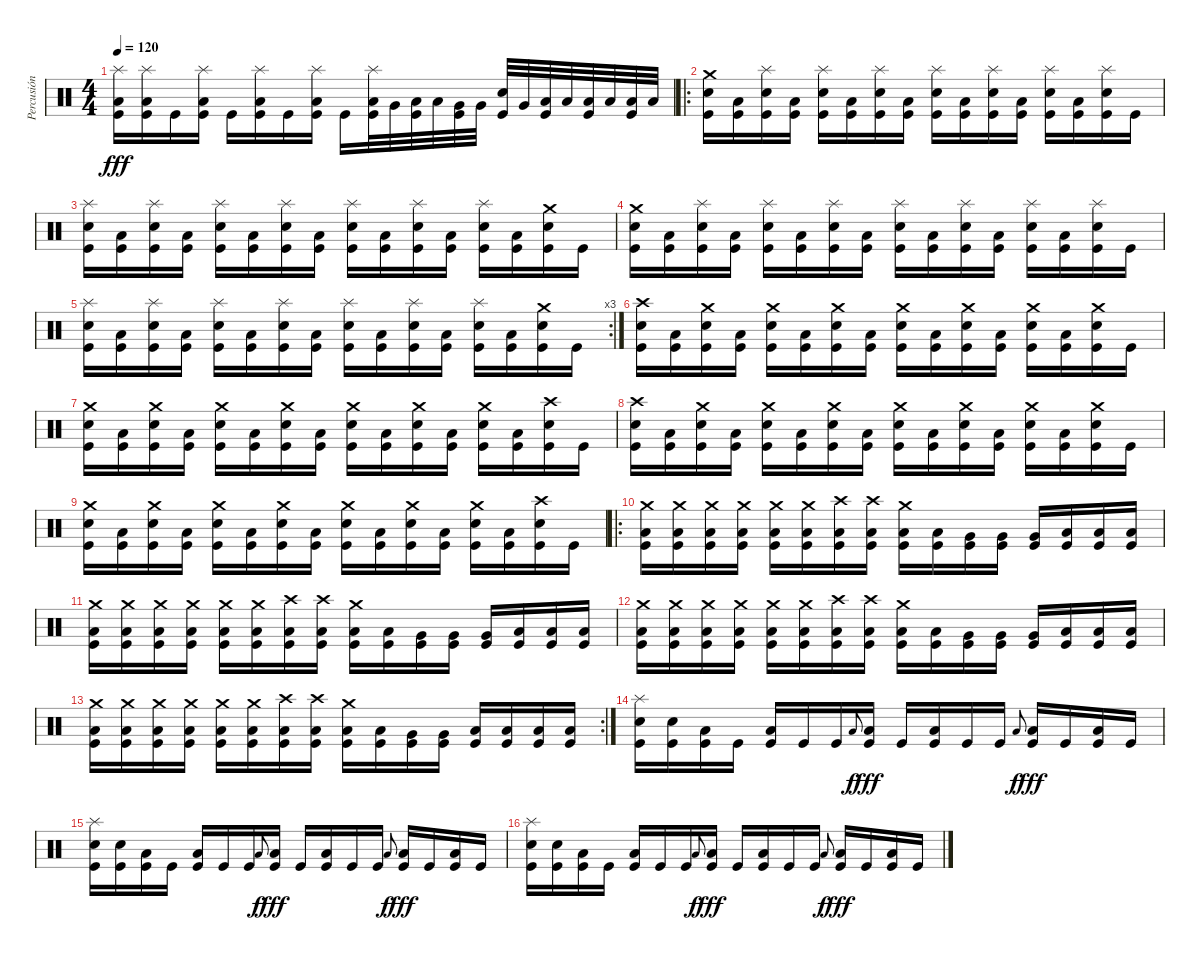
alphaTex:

\track ("Percusión" "Percusión") {instrument percussion}
\staff {score}
\articulation defaults
\ts (4 4)
\tempo 120
\clef neutral
\ks c
("Splash (hit)" "Low Floor Tom (hit)" "Kick (hit)").16{dy fff} ("Splash (hit)" "Low Floor Tom (hit)" "Kick (hit)").16 "Kick (hit)".16 ("Splash (hit)" "Low Floor Tom (hit)" "Kick (hit)").16 "Kick (hit)".16 ("Splash (hit)" "Low Floor Tom (hit)" "Kick (hit)").16 "Kick (hit)".16 ("Splash (hit)" "Low Floor Tom (hit)" "Kick (hit)").16 "Kick (hit)".16 ("Splash (hit)" "Low Floor Tom (hit)" "Kick (hit)").32 "Very Low Tom (hit)".32 ("Low Floor Tom (hit)" "Kick (hit)").32 "Low Floor Tom (hit)".32 ("Very Low Tom (hit)" "Kick (hit)").32 "Very Low Tom (hit)".32 ("Snare (hit) 2" "Kick (hit)").32 "Very Low Tom (hit)".32 ("Low Floor Tom (hit)" "Kick (hit)").32 "Low Floor Tom (hit)".32 ("Low Floor Tom (hit)" "Kick (hit)").32 "Low Floor Tom (hit)".32 ("Low Floor Tom (hit)" "Kick (hit)").32 "Low Floor Tom (hit)".32 |
\ro
("Crash medium (hit)" "Snare (hit) 2" "Kick (hit)").16 ("Low Floor Tom (hit)" "Kick (hit)").16 ("Splash (hit)" "Snare (hit) 2" "Kick (hit)").16 ("Low Floor Tom (hit)" "Kick (hit)").16 ("Splash (hit)" "Snare (hit) 2" "Kick (hit)").16 ("Low Floor Tom (hit)" "Kick (hit)").16 ("Splash (hit)" "Snare (hit) 2" "Kick (hit)").16 ("Low Floor Tom (hit)" "Kick (hit)").16 ("Splash (hit)" "Snare (hit) 2" "Kick (hit)").16 ("Low Floor Tom (hit)" "Kick (hit)").16 ("Splash (hit)" "Snare (hit) 2" "Kick (hit)").16 ("Low Floor Tom (hit)" "Kick (hit)").16 ("Splash (hit)" "Snare (hit) 2" "Kick (hit)").16 ("Low Floor Tom (hit)" "Kick (hit)").16 ("Splash (hit)" "Snare (hit) 2" "Kick (hit)").16 "Kick (hit)".16 |
("Splash (hit)" "Snare (hit) 2" "Kick (hit)").16 ("Low Floor Tom (hit)" "Kick (hit)").16 ("Splash (hit)" "Snare (hit) 2" "Kick (hit)").16 ("Low Floor Tom (hit)" "Kick (hit)").16 ("Splash (hit)" "Snare (hit) 2" "Kick (hit)").16 ("Low Floor Tom (hit)" "Kick (hit)").16 ("Splash (hit)" "Snare (hit) 2" "Kick (hit)").16 ("Low Floor Tom (hit)" "Kick (hit)").16 ("Splash (hit)" "Snare (hit) 2" "Kick (hit)").16 ("Low Floor Tom (hit)" "Kick (hit)").16 ("Splash (hit)" "Snare (hit) 2" "Kick (hit)").16 ("Low Floor Tom (hit)" "Kick (hit)").16 ("Splash (hit)" "Snare (hit) 2" "Kick (hit)").16 ("Low Floor Tom (hit)" "Kick (hit)").16 ("Crash medium (hit)" "Snare (hit) 2" "Kick (hit)").16 "Kick (hit)".16 |
("Crash medium (hit)" "Snare (hit) 2" "Kick (hit)").16 ("Low Floor Tom (hit)" "Kick (hit)").16 ("Splash (hit)" "Snare (hit) 2" "Kick (hit)").16 ("Low Floor Tom (hit)" "Kick (hit)").16 ("Splash (hit)" "Snare (hit) 2" "Kick (hit)").16 ("Low Floor Tom (hit)" "Kick (hit)").16 ("Splash (hit)" "Snare (hit) 2" "Kick (hit)").16 ("Low Floor Tom (hit)" "Kick (hit)").16 ("Splash (hit)" "Snare (hit) 2" "Kick (hit)").16 ("Low Floor Tom (hit)" "Kick (hit)").16 ("Splash (hit)" "Snare (hit) 2" "Kick (hit)").16 ("Low Floor Tom (hit)" "Kick (hit)").16 ("Splash (hit)" "Snare (hit) 2" "Kick (hit)").16 ("Low Floor Tom (hit)" "Kick (hit)").16 ("Splash (hit)" "Snare (hit) 2" "Kick (hit)").16 "Kick (hit)".16 |
\rc 3
("Splash (hit)" "Snare (hit) 2" "Kick (hit)").16 ("Low Floor Tom (hit)" "Kick (hit)").16 ("Splash (hit)" "Snare (hit) 2" "Kick (hit)").16 ("Low Floor Tom (hit)" "Kick (hit)").16 ("Splash (hit)" "Snare (hit) 2" "Kick (hit)").16 ("Low Floor Tom (hit)" "Kick (hit)").16 ("Splash (hit)" "Snare (hit) 2" "Kick (hit)").16 ("Low Floor Tom (hit)" "Kick (hit)").16 ("Splash (hit)" "Snare (hit) 2" "Kick (hit)").16 ("Low Floor Tom (hit)" "Kick (hit)").16 ("Splash (hit)" "Snare (hit) 2" "Kick (hit)").16 ("Low Floor Tom (hit)" "Kick (hit)").16 ("Splash (hit)" "Snare (hit) 2" "Kick (hit)").16 ("Low Floor Tom (hit)" "Kick (hit)").16 ("Crash medium (hit)" "Snare (hit) 2" "Kick (hit)").16 "Kick (hit)".16 |
("Crash high (hit)" "Snare (hit) 2" "Kick (hit)").16 ("Low Floor Tom (hit)" "Kick (hit)").16 ("Crash medium (hit)" "Snare (hit) 2" "Kick (hit)").16 ("Low Floor Tom (hit)" "Kick (hit)").16 ("Crash medium (hit)" "Snare (hit) 2" "Kick (hit)").16 ("Low Floor Tom (hit)" "Kick (hit)").16 ("Crash medium (hit)" "Snare (hit) 2" "Kick (hit)").16 ("Low Floor Tom (hit)" "Kick (hit)").16 ("Crash medium (hit)" "Snare (hit) 2" "Kick (hit)").16 ("Low Floor Tom (hit)" "Kick (hit)").16 ("Crash medium (hit)" "Snare (hit) 2" "Kick (hit)").16 ("Low Floor Tom (hit)" "Kick (hit)").16 ("Crash medium (hit)" "Snare (hit) 2" "Kick (hit)").16 ("Low Floor Tom (hit)" "Kick (hit)").16 ("Crash medium (hit)" "Snare (hit) 2" "Kick (hit)").16 "Kick (hit)".16 |
("Crash medium (hit)" "Snare (hit) 2" "Kick (hit)").16 ("Low Floor Tom (hit)" "Kick (hit)").16 ("Crash medium (hit)" "Snare (hit) 2" "Kick (hit)").16 ("Low Floor Tom (hit)" "Kick (hit)").16 ("Crash medium (hit)" "Snare (hit) 2" "Kick (hit)").16 ("Low Floor Tom (hit)" "Kick (hit)").16 ("Crash medium (hit)" "Snare (hit) 2" "Kick (hit)").16 ("Low Floor Tom (hit)" "Kick (hit)").16 ("Crash medium (hit)" "Snare (hit) 2" "Kick (hit)").16 ("Low Floor Tom (hit)" "Kick (hit)").16 ("Crash medium (hit)" "Snare (hit) 2" "Kick (hit)").16 ("Low Floor Tom (hit)" "Kick (hit)").16 ("Crash medium (hit)" "Snare (hit) 2" "Kick (hit)").16 ("Low Floor Tom (hit)" "Kick (hit)").16 ("Crash high (hit)" "Snare (hit) 2" "Kick (hit)").16 "Kick (hit)".16 |
("Crash high (hit)" "Snare (hit) 2" "Kick (hit)").16 ("Low Floor Tom (hit)" "Kick (hit)").16 ("Crash medium (hit)" "Snare (hit) 2" "Kick (hit)").16 ("Low Floor Tom (hit)" "Kick (hit)").16 ("Crash medium (hit)" "Snare (hit) 2" "Kick (hit)").16 ("Low Floor Tom (hit)" "Kick (hit)").16 ("Crash medium (hit)" "Snare (hit) 2" "Kick (hit)").16 ("Low Floor Tom (hit)" "Kick (hit)").16 ("Crash medium (hit)" "Snare (hit) 2" "Kick (hit)").16 ("Low Floor Tom (hit)" "Kick (hit)").16 ("Crash medium (hit)" "Snare (hit) 2" "Kick (hit)").16 ("Low Floor Tom (hit)" "Kick (hit)").16 ("Crash medium (hit)" "Snare (hit) 2" "Kick (hit)").16 ("Low Floor Tom (hit)" "Kick (hit)").16 ("Crash medium (hit)" "Snare (hit) 2" "Kick (hit)").16 "Kick (hit)".16 |
("Crash medium (hit)" "Snare (hit) 2" "Kick (hit)").16 ("Low Floor Tom (hit)" "Kick (hit)").16 ("Crash medium (hit)" "Snare (hit) 2" "Kick (hit)").16 ("Low Floor Tom (hit)" "Kick (hit)").16 ("Crash medium (hit)" "Snare (hit) 2" "Kick (hit)").16 ("Low Floor Tom (hit)" "Kick (hit)").16 ("Crash medium (hit)" "Snare (hit) 2" "Kick (hit)").16 ("Low Floor Tom (hit)" "Kick (hit)").16 ("Crash medium (hit)" "Snare (hit) 2" "Kick (hit)").16 ("Low Floor Tom (hit)" "Kick (hit)").16 ("Crash medium (hit)" "Snare (hit) 2" "Kick (hit)").16 ("Low Floor Tom (hit)" "Kick (hit)").16 ("Crash medium (hit)" "Snare (hit) 2" "Kick (hit)").16 ("Low Floor Tom (hit)" "Kick (hit)").16 ("Crash high (hit)" "Snare (hit) 2" "Kick (hit)").16 "Kick (hit)".16 |
\ro
("Crash medium (hit)" "Low Floor Tom (hit)" "Kick (hit)").16 ("Crash medium (hit)" "Low Floor Tom (hit)" "Kick (hit)").16 ("Crash medium (hit)" "Low Floor Tom (hit)" "Kick (hit)").16 ("Crash medium (hit)" "Low Floor Tom (hit)" "Kick (hit)").16 ("Crash medium (hit)" "Low Floor Tom (hit)" "Kick (hit)").16 ("Crash medium (hit)" "Low Floor Tom (hit)" "Kick (hit)").16 ("Crash high (hit)" "Low Floor Tom (hit)" "Kick (hit)").16 ("Crash high (hit)" "Low Floor Tom (hit)" "Kick (hit)").16 ("Crash medium (hit)" "Low Floor Tom (hit)" "Kick (hit)").16 ("Low Floor Tom (hit)" "Kick (hit)").16 ("Very Low Tom (hit)" "Kick (hit)").16 ("Very Low Tom (hit)" "Kick (hit)").16 ("Very Low Tom (hit)" "Kick (hit)").16 ("Low Floor Tom (hit)" "Kick (hit)").16 ("Low Floor Tom (hit)" "Kick (hit)").16 ("Low Floor Tom (hit)" "Kick (hit)").16 |
("Crash medium (hit)" "Low Floor Tom (hit)" "Kick (hit)").16 ("Crash medium (hit)" "Low Floor Tom (hit)" "Kick (hit)").16 ("Crash medium (hit)" "Low Floor Tom (hit)" "Kick (hit)").16 ("Crash medium (hit)" "Low Floor Tom (hit)" "Kick (hit)").16 ("Crash medium (hit)" "Low Floor Tom (hit)" "Kick (hit)").16 ("Crash medium (hit)" "Low Floor Tom (hit)" "Kick (hit)").16 ("Crash high (hit)" "Low Floor Tom (hit)" "Kick (hit)").16 ("Crash high (hit)" "Low Floor Tom (hit)" "Kick (hit)").16 ("Crash medium (hit)" "Low Floor Tom (hit)" "Kick (hit)").16 ("Low Floor Tom (hit)" "Kick (hit)").16 ("Very Low Tom (hit)" "Kick (hit)").16 ("Very Low Tom (hit)" "Kick (hit)").16 ("Very Low Tom (hit)" "Kick (hit)").16 ("Low Floor Tom (hit)" "Kick (hit)").16 ("Low Floor Tom (hit)" "Kick (hit)").16 ("Low Floor Tom (hit)" "Kick (hit)").16 |
("Crash medium (hit)" "Low Floor Tom (hit)" "Kick (hit)").16 ("Crash medium (hit)" "Low Floor Tom (hit)" "Kick (hit)").16 ("Crash medium (hit)" "Low Floor Tom (hit)" "Kick (hit)").16 ("Crash medium (hit)" "Low Floor Tom (hit)" "Kick (hit)").16 ("Crash medium (hit)" "Low Floor Tom (hit)" "Kick (hit)").16 ("Crash medium (hit)" "Low Floor Tom (hit)" "Kick (hit)").16 ("Crash high (hit)" "Low Floor Tom (hit)" "Kick (hit)").16 ("Crash high (hit)" "Low Floor Tom (hit)" "Kick (hit)").16 ("Crash medium (hit)" "Low Floor Tom (hit)" "Kick (hit)").16 ("Low Floor Tom (hit)" "Kick (hit)").16 ("Very Low Tom (hit)" "Kick (hit)").16 ("Very Low Tom (hit)" "Kick (hit)").16 ("Very Low Tom (hit)" "Kick (hit)").16 ("Low Floor Tom (hit)" "Kick (hit)").16 ("Low Floor Tom (hit)" "Kick (hit)").16 ("Low Floor Tom (hit)" "Kick (hit)").16 |
\rc 2
("Crash medium (hit)" "Low Floor Tom (hit)" "Kick (hit)").16 ("Crash medium (hit)" "Low Floor Tom (hit)" "Kick (hit)").16 ("Crash medium (hit)" "Low Floor Tom (hit)" "Kick (hit)").16 ("Crash medium (hit)" "Low Floor Tom (hit)" "Kick (hit)").16 ("Crash medium (hit)" "Low Floor Tom (hit)" "Kick (hit)").16 ("Crash medium (hit)" "Low Floor Tom (hit)" "Kick (hit)").16 ("Crash high (hit)" "Low Floor Tom (hit)" "Kick (hit)").16 ("Crash high (hit)" "Low Floor Tom (hit)" "Kick (hit)").16 ("Crash medium (hit)" "Low Floor Tom (hit)" "Kick (hit)").16 ("Low Floor Tom (hit)" "Kick (hit)").16 ("Very Low Tom (hit)" "Kick (hit)").16 ("Very Low Tom (hit)" "Kick (hit)").16 ("Low Floor Tom (hit)" "Kick (hit)").16 ("Low Floor Tom (hit)" "Kick (hit)").16 ("Low Floor Tom (hit)" "Kick (hit)").16 ("Low Floor Tom (hit)" "Kick (hit)").16 |
("Splash (hit)" "Snare (hit) 2" "Kick (hit)").16 ("Snare (hit) 2" "Kick (hit)").16 ("Low Floor Tom (hit)" "Kick (hit)").16 "Kick (hit)".16 ("Low Floor Tom (hit)" "Kick (hit)").16 "Kick (hit)".16 "Kick (hit)".16 "Low Floor Tom (hit)".8{gr onbeat dy f} ("Low Floor Tom (hit)" "Kick (hit)").16{dy fff} "Kick (hit)".16 ("Low Floor Tom (hit)" "Kick (hit)").16 "Kick (hit)".16 "Kick (hit)".16 "Low Floor Tom (hit)".8{gr onbeat dy f} ("Low Floor Tom (hit)" "Kick (hit)").16{dy fff} "Kick (hit)".16 ("Low Floor Tom (hit)" "Kick (hit)").16 "Kick (hit)".16 |
("Splash (hit)" "Snare (hit) 2" "Kick (hit)").16 ("Snare (hit) 2" "Kick (hit)").16 ("Low Floor Tom (hit)" "Kick (hit)").16 "Kick (hit)".16 ("Low Floor Tom (hit)" "Kick (hit)").16 "Kick (hit)".16 "Kick (hit)".16 "Low Floor Tom (hit)".8{gr onbeat dy f} ("Low Floor Tom (hit)" "Kick (hit)").16{dy fff} "Kick (hit)".16 ("Low Floor Tom (hit)" "Kick (hit)").16 "Kick (hit)".16 "Kick (hit)".16 "Low Floor Tom (hit)".8{gr onbeat dy f} ("Low Floor Tom (hit)" "Kick (hit)").16{dy fff} "Kick (hit)".16 ("Low Floor Tom (hit)" "Kick (hit)").16 "Kick (hit)".16 |
("Splash (hit)" "Snare (hit) 2" "Kick (hit)").16 ("Snare (hit) 2" "Kick (hit)").16 ("Low Floor Tom (hit)" "Kick (hit)").16 "Kick (hit)".16 ("Low Floor Tom (hit)" "Kick (hit)").16 "Kick (hit)".16 "Kick (hit)".16 "Low Floor Tom (hit)".8{gr onbeat dy f} ("Low Floor Tom (hit)" "Kick (hit)").16{dy fff} "Kick (hit)".16 ("Low Floor Tom (hit)" "Kick (hit)").16 "Kick (hit)".16 "Kick (hit)".16 "Low Floor Tom (hit)".8{gr onbeat dy f} ("Low Floor Tom (hit)" "Kick (hit)").16{dy fff} "Kick (hit)".16 ("Low Floor Tom (hit)" "Kick (hit)").16 "Kick (hit)".16
